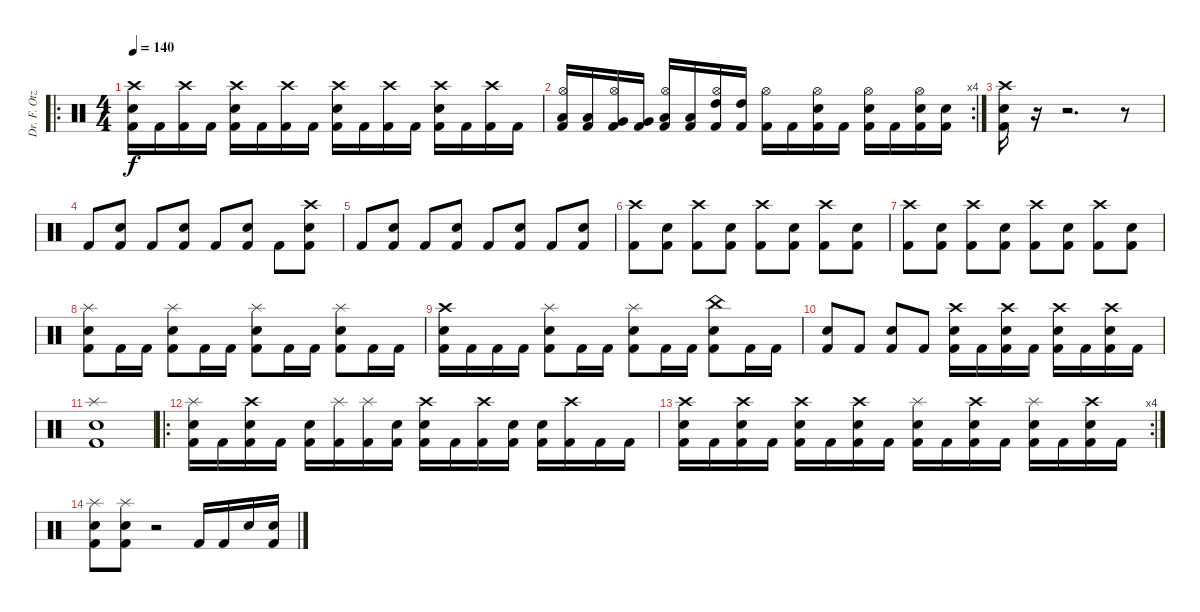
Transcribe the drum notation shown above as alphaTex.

\track ("Dr. F. Otze" "Dr. F. Otz") {instrument percussion}
\staff {score}
\articulation defaults
\ro
\ts (4 4)
\tempo 140
\clef neutral
\ks c
("Crash high (hit)" "Snare (hit) 2" "Kick (hit) 2").16{dy f} "Kick (hit) 2".16 ("Crash high (hit)" "Kick (hit) 2").16 "Kick (hit) 2".16 ("Crash high (hit)" "Snare (hit) 2" "Kick (hit) 2").16 "Kick (hit) 2".16 ("Crash high (hit)" "Kick (hit) 2").16 "Kick (hit) 2".16 ("Crash high (hit)" "Snare (hit) 2" "Kick (hit) 2").16 "Kick (hit) 2".16 ("Crash high (hit)" "Kick (hit) 2").16 "Kick (hit) 2".16 ("Crash high (hit)" "Snare (hit) 2" "Kick (hit) 2").16 "Kick (hit) 2".16 ("Crash high (hit)" "Kick (hit) 2").16 "Kick (hit) 2".16 |
\rc 4
("Hi-Hat (open)" "Low Tom (hit)" "Kick (hit) 2").16 ("Low Tom (hit)" "Kick (hit) 2").16 ("Hi-Hat (open)" "Very Low Tom (hit)" "Kick (hit) 2").16 ("Very Low Tom (hit)" "Kick (hit) 2").16 ("Hi-Hat (open)" "Low Tom (hit)" "Kick (hit) 2").16 ("Low Tom (hit)" "Kick (hit) 2").16 ("Hi-Hat (open)" "High Tom (hit)" "Kick (hit) 2").16 ("High Tom (hit)" "Kick (hit) 2").16 ("Hi-Hat (open)" "Kick (hit) 2").16 "Kick (hit) 2".16 ("Hi-Hat (open)" "Snare (hit) 2" "Kick (hit) 2").16 "Kick (hit) 2".16 ("Hi-Hat (open)" "Snare (hit) 2" "Kick (hit) 2").16 "Kick (hit) 2".16 ("Hi-Hat (open)" "Snare (hit) 2" "Kick (hit) 2").16 ("Snare (hit) 2" "Kick (hit) 2").16 |
("Crash high (hit)" "Electric Snare (hit)" "Kick (hit) 2").16 r.16 r.2{d} r.8 |
"Kick (hit) 2".8 ("Snare (hit) 2" "Kick (hit) 2").8 "Kick (hit) 2".8 ("Snare (hit) 2" "Kick (hit) 2").8 "Kick (hit) 2".8 ("Snare (hit) 2" "Kick (hit) 2").8 "Kick (hit) 2".8 ("Crash high (hit)" "Snare (hit) 2" "Kick (hit) 2").8 |
"Kick (hit) 2".8 ("Snare (hit) 2" "Kick (hit) 2").8 "Kick (hit) 2".8 ("Snare (hit) 2" "Kick (hit) 2").8 "Kick (hit) 2".8 ("Snare (hit) 2" "Kick (hit) 2").8 "Kick (hit) 2".8 ("Snare (hit) 2" "Kick (hit) 2").8 |
("Crash high (hit)" "Kick (hit) 2").8 ("Snare (hit) 2" "Kick (hit) 2").8 ("Crash high (hit)" "Kick (hit) 2").8 ("Snare (hit) 2" "Kick (hit) 2").8 ("Crash high (hit)" "Kick (hit) 2").8 ("Snare (hit) 2" "Kick (hit) 2").8 ("Crash high (hit)" "Kick (hit) 2").8 ("Snare (hit) 2" "Kick (hit) 2").8 |
("Crash high (hit)" "Kick (hit) 2").8 ("Snare (hit) 2" "Kick (hit) 2").8 ("Crash high (hit)" "Kick (hit) 2").8 ("Snare (hit) 2" "Kick (hit) 2").8 ("Crash high (hit)" "Kick (hit) 2").8 ("Snare (hit) 2" "Kick (hit) 2").8 ("Crash high (hit)" "Kick (hit) 2").8 ("Snare (hit) 2" "Kick (hit) 2").8 |
("Splash (hit)" "Snare (hit) 2" "Kick (hit) 2").8 "Kick (hit) 2".16 "Kick (hit) 2".16 ("Splash (hit)" "Snare (hit) 2" "Kick (hit) 2").8 "Kick (hit) 2".16 "Kick (hit) 2".16 ("Splash (hit)" "Snare (hit) 2" "Kick (hit) 2").8 "Kick (hit) 2".16 "Kick (hit) 2".16 ("Splash (hit)" "Snare (hit) 2" "Kick (hit) 2").8 "Kick (hit) 2".16 "Kick (hit) 2".16 |
("Crash high (hit)" "Snare (hit) 2" "Kick (hit) 2").16 "Kick (hit) 2".16 "Kick (hit) 2".16 "Kick (hit) 2".16 ("Splash (hit)" "Snare (hit) 2" "Kick (hit) 2").8 "Kick (hit) 2".16 "Kick (hit) 2".16 ("Splash (hit)" "Snare (hit) 2" "Kick (hit) 2").8 "Kick (hit) 2".16 "Kick (hit) 2".16 ("China (hit)" "Snare (hit) 2" "Kick (hit) 2").8 "Kick (hit) 2".16 "Kick (hit) 2".16 |
("Snare (hit) 2" "Kick (hit) 2").8 "Kick (hit) 2".8 ("Snare (hit) 2" "Kick (hit) 2").8 "Kick (hit) 2".8 ("Crash high (hit)" "Snare (hit) 2" "Kick (hit) 2").16 "Kick (hit) 2".16 ("Crash high (hit)" "Snare (hit) 2" "Kick (hit) 2").16 "Kick (hit) 2".16 ("Crash high (hit)" "Snare (hit) 2" "Kick (hit) 2").16 "Kick (hit) 2".16 ("Crash high (hit)" "Snare (hit) 2" "Kick (hit) 2").16 "Kick (hit) 2".16 |
("Splash (hit)" "Snare (hit) 2" "Kick (hit) 2").1 |
\ro
("Splash (hit)" "Snare (hit) 2" "Kick (hit) 2").16 "Kick (hit) 2".16 ("Crash high (hit)" "Snare (hit) 2" "Kick (hit) 2").16 "Kick (hit) 2".16 ("Snare (hit) 2" "Kick (hit) 2").16 ("Splash (hit)" "Kick (hit) 2").16 ("Splash (hit)" "Kick (hit) 2").16 ("Snare (hit) 2" "Kick (hit) 2").16 ("Crash high (hit)" "Snare (hit) 2" "Kick (hit) 2").16 "Kick (hit) 2".16 ("Crash high (hit)" "Kick (hit) 2").16 ("Snare (hit) 2" "Kick (hit) 2").16 ("Snare (hit) 2" "Kick (hit) 2").16 ("Crash high (hit)" "Kick (hit) 2").16 "Kick (hit) 2".16 "Kick (hit) 2".16 |
\rc 4
("Crash high (hit)" "Snare (hit) 2" "Kick (hit) 2").16 "Kick (hit) 2".16 ("Crash high (hit)" "Snare (hit) 2" "Kick (hit) 2").16 "Kick (hit) 2".16 ("Crash high (hit)" "Snare (hit) 2" "Kick (hit) 2").16 "Kick (hit) 2".16 ("Crash high (hit)" "Snare (hit) 2" "Kick (hit) 2").16 "Kick (hit) 2".16 ("Splash (hit)" "Snare (hit) 2" "Kick (hit) 2").16 "Kick (hit) 2".16 ("Crash high (hit)" "Snare (hit) 2" "Kick (hit) 2").16 "Kick (hit) 2".16 ("Splash (hit)" "Snare (hit) 2" "Kick (hit) 2").16 "Kick (hit) 2".16 ("Crash high (hit)" "Snare (hit) 2" "Kick (hit) 2").16 "Kick (hit) 2".16 |
("Splash (hit)" "Snare (hit) 2" "Kick (hit) 2").8 ("Splash (hit)" "Snare (hit) 2" "Kick (hit) 2").8 r.2 "Kick (hit) 2".16 "Kick (hit) 2".16 "Snare (hit) 2".16 ("Snare (hit) 2" "Kick (hit) 2").16
